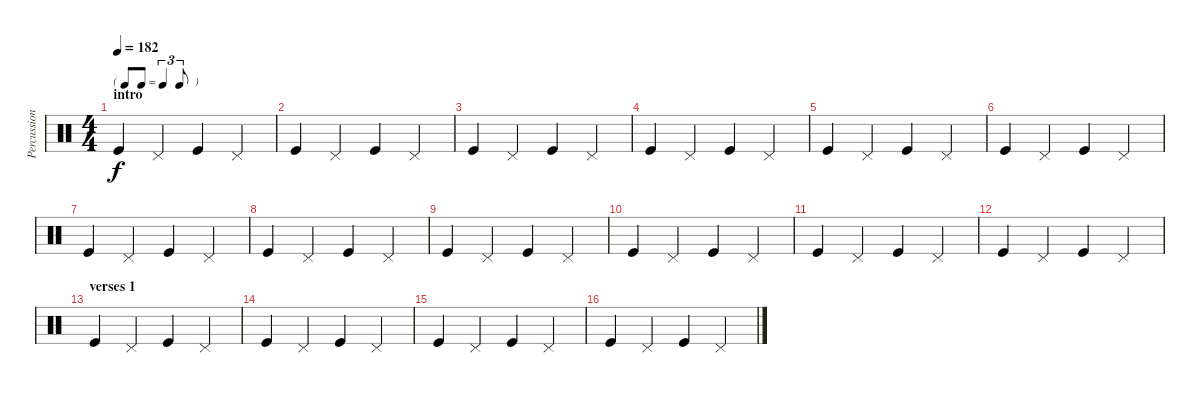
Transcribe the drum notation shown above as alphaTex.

\track ("Percussions" "Percussion") {instrument percussion}
\staff {score}
\articulation defaults
\ts (4 4)
\tf triplet8th
\section ("" "intro")
\tempo 182
\clef neutral
\ks c "Kick (hit)".4{dy f} "Pedal Hi-Hat (hit)".4 "Kick (hit)".4 "Pedal Hi-Hat (hit)".4
|
"Kick (hit)".4 "Pedal Hi-Hat (hit)".4 "Kick (hit)".4 "Pedal Hi-Hat (hit)".4 |
"Kick (hit)".4 "Pedal Hi-Hat (hit)".4 "Kick (hit)".4 "Pedal Hi-Hat (hit)".4 |
"Kick (hit)".4 "Pedal Hi-Hat (hit)".4 "Kick (hit)".4 "Pedal Hi-Hat (hit)".4 |
"Kick (hit)".4 "Pedal Hi-Hat (hit)".4 "Kick (hit)".4 "Pedal Hi-Hat (hit)".4 |
"Kick (hit)".4 "Pedal Hi-Hat (hit)".4 "Kick (hit)".4 "Pedal Hi-Hat (hit)".4 |
"Kick (hit)".4 "Pedal Hi-Hat (hit)".4 "Kick (hit)".4 "Pedal Hi-Hat (hit)".4 |
"Kick (hit)".4 "Pedal Hi-Hat (hit)".4 "Kick (hit)".4 "Pedal Hi-Hat (hit)".4 |
"Kick (hit)".4 "Pedal Hi-Hat (hit)".4 "Kick (hit)".4 "Pedal Hi-Hat (hit)".4 |
"Kick (hit)".4 "Pedal Hi-Hat (hit)".4 "Kick (hit)".4 "Pedal Hi-Hat (hit)".4 |
"Kick (hit)".4 "Pedal Hi-Hat (hit)".4 "Kick (hit)".4 "Pedal Hi-Hat (hit)".4 |
"Kick (hit)".4 "Pedal Hi-Hat (hit)".4 "Kick (hit)".4 "Pedal Hi-Hat (hit)".4 |
\section ("" "verses 1")
"Kick (hit)".4 "Pedal Hi-Hat (hit)".4 "Kick (hit)".4 "Pedal Hi-Hat (hit)".4 |
"Kick (hit)".4 "Pedal Hi-Hat (hit)".4 "Kick (hit)".4 "Pedal Hi-Hat (hit)".4 |
"Kick (hit)".4 "Pedal Hi-Hat (hit)".4 "Kick (hit)".4 "Pedal Hi-Hat (hit)".4 |
"Kick (hit)".4 "Pedal Hi-Hat (hit)".4 "Kick (hit)".4 "Pedal Hi-Hat (hit)".4
